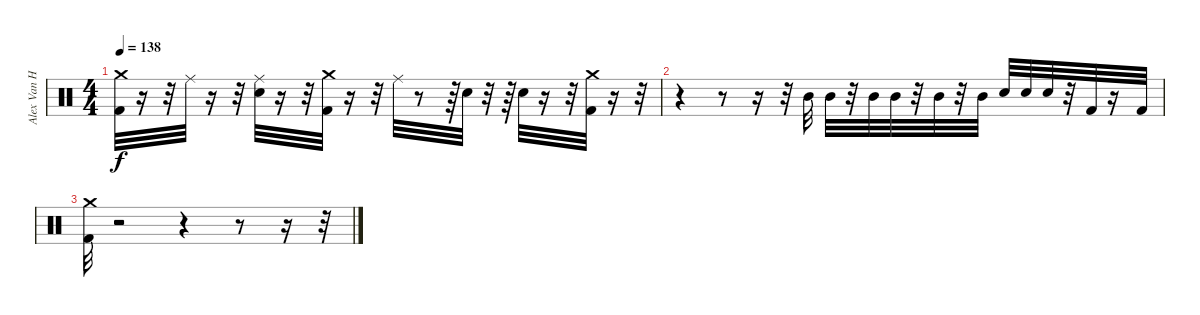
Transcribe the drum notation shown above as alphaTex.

\track ("Alex Van Halen (Drums)" "Alex Van H") {instrument percussion}
\staff {score}
\articulation defaults
\ts (4 4)
\tempo 138
\clef neutral
\ks c
("Kick (hit) 2" "Crash medium (hit)").32{dy f} r.16 r.32 "Ride (middle)".32 r.16 r.32 ("Snare (hit) 2" "Ride (middle)").32 r.16 r.32 ("Kick (hit) 2" "Crash medium (hit)").32 r.16 r.32 "Ride (middle)".32 r.8 r.64 "Snare (hit) 2".32 r.32 r.64 "Snare (hit) 2".32 r.16 r.32 ("Crash medium (hit)" "Kick (hit) 2").32 r.16 r.32 |
r.4 r.8 r.16 r.32 "Mid Tom (hit)".32 "Mid Tom (hit)".32 r.32 "Mid Tom (hit)".32 "Mid Tom (hit)".32 r.32 "Mid Tom (hit)".32 r.32 "Mid Tom (hit)".32 "Snare (hit) 2".32 "Snare (hit) 2".32 "Snare (hit) 2".32 r.32 "Kick (hit) 2".32 r.16 "Kick (hit) 2".32 |
("Crash medium (hit)" "Kick (hit) 2").32 r.2 r.4 r.8 r.16 r.32
